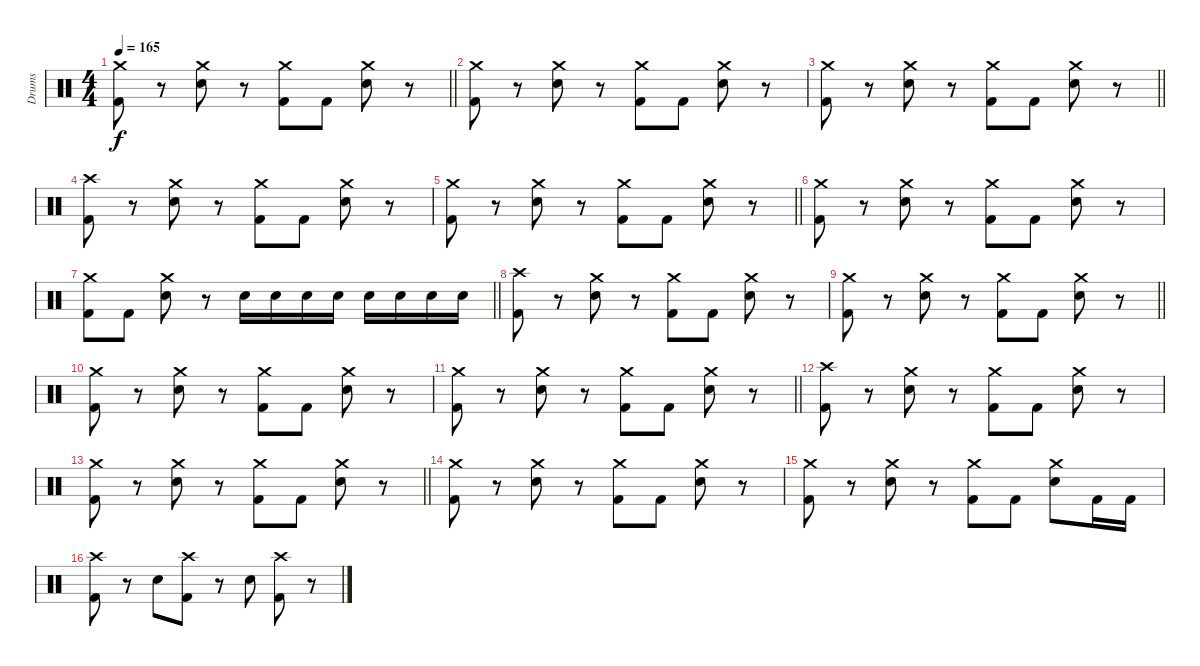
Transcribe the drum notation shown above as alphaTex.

\track ("Drums" "Drums") {instrument percussion}
\staff {score}
\articulation defaults
\ts (4 4)
\tempo 165
\clef neutral
\barLineRight lightlight
\ks c
("Crash medium (hit)" "Kick (hit) 2").8{dy f} r.8 ("Crash medium (hit)" "Electric Snare (hit)").8 r.8 ("Crash medium (hit)" "Kick (hit) 2").8 "Kick (hit) 2".8 ("Crash medium (hit)" "Electric Snare (hit)").8 r.8 |
("Crash medium (hit)" "Kick (hit) 2").8 r.8 ("Crash medium (hit)" "Electric Snare (hit)").8 r.8 ("Crash medium (hit)" "Kick (hit) 2").8 "Kick (hit) 2".8 ("Crash medium (hit)" "Electric Snare (hit)").8 r.8 |
\barLineRight lightlight
("Crash medium (hit)" "Kick (hit) 2").8 r.8 ("Crash medium (hit)" "Electric Snare (hit)").8 r.8 ("Crash medium (hit)" "Kick (hit) 2").8 "Kick (hit) 2".8 ("Crash medium (hit)" "Electric Snare (hit)").8 r.8 |
("Crash high (hit)" "Kick (hit) 2").8 r.8 ("Crash medium (hit)" "Electric Snare (hit)").8 r.8 ("Crash medium (hit)" "Kick (hit) 2").8 "Kick (hit) 2".8 ("Crash medium (hit)" "Electric Snare (hit)").8 r.8 |
\barLineRight lightlight
("Crash medium (hit)" "Kick (hit) 2").8 r.8 ("Crash medium (hit)" "Electric Snare (hit)").8 r.8 ("Crash medium (hit)" "Kick (hit) 2").8 "Kick (hit) 2".8 ("Crash medium (hit)" "Electric Snare (hit)").8 r.8 |
("Crash medium (hit)" "Kick (hit) 2").8 r.8 ("Crash medium (hit)" "Electric Snare (hit)").8 r.8 ("Crash medium (hit)" "Kick (hit) 2").8 "Kick (hit) 2".8 ("Crash medium (hit)" "Electric Snare (hit)").8 r.8 |
\barLineRight lightlight
("Crash medium (hit)" "Kick (hit) 2").8 "Kick (hit) 2".8 ("Crash medium (hit)" "Electric Snare (hit)").8 r.8 "Electric Snare (hit)".16 "Electric Snare (hit)".16 "Electric Snare (hit)".16 "Electric Snare (hit)".16 "Electric Snare (hit)".16 "Electric Snare (hit)".16 "Electric Snare (hit)".16 "Electric Snare (hit)".16 |
("Crash high (hit)" "Kick (hit) 2").8 r.8 ("Crash medium (hit)" "Electric Snare (hit)").8 r.8 ("Crash medium (hit)" "Kick (hit) 2").8 "Kick (hit) 2".8 ("Crash medium (hit)" "Electric Snare (hit)").8 r.8 |
\barLineRight lightlight
("Crash medium (hit)" "Kick (hit) 2").8 r.8 ("Crash medium (hit)" "Electric Snare (hit)").8 r.8 ("Crash medium (hit)" "Kick (hit) 2").8 "Kick (hit) 2".8 ("Crash medium (hit)" "Electric Snare (hit)").8 r.8 |
("Crash medium (hit)" "Kick (hit) 2").8 r.8 ("Crash medium (hit)" "Electric Snare (hit)").8 r.8 ("Crash medium (hit)" "Kick (hit) 2").8 "Kick (hit) 2".8 ("Crash medium (hit)" "Electric Snare (hit)").8 r.8 |
\barLineRight lightlight
("Crash medium (hit)" "Kick (hit) 2").8 r.8 ("Crash medium (hit)" "Electric Snare (hit)").8 r.8 ("Crash medium (hit)" "Kick (hit) 2").8 "Kick (hit) 2".8 ("Crash medium (hit)" "Electric Snare (hit)").8 r.8 |
("Crash high (hit)" "Kick (hit) 2").8 r.8 ("Crash medium (hit)" "Electric Snare (hit)").8 r.8 ("Crash medium (hit)" "Kick (hit) 2").8 "Kick (hit) 2".8 ("Crash medium (hit)" "Electric Snare (hit)").8 r.8 |
\barLineRight lightlight
("Crash medium (hit)" "Kick (hit) 2").8 r.8 ("Crash medium (hit)" "Electric Snare (hit)").8 r.8 ("Crash medium (hit)" "Kick (hit) 2").8 "Kick (hit) 2".8 ("Crash medium (hit)" "Electric Snare (hit)").8 r.8 |
("Crash medium (hit)" "Kick (hit) 2").8 r.8 ("Crash medium (hit)" "Electric Snare (hit)").8 r.8 ("Crash medium (hit)" "Kick (hit) 2").8 "Kick (hit) 2".8 ("Crash medium (hit)" "Electric Snare (hit)").8 r.8 |
("Crash medium (hit)" "Kick (hit) 2").8 r.8 ("Crash medium (hit)" "Electric Snare (hit)").8 r.8 ("Crash medium (hit)" "Kick (hit) 2").8 "Kick (hit) 2".8 ("Crash medium (hit)" "Electric Snare (hit)").8 "Kick (hit) 2".16 "Kick (hit) 2".16 |
("Kick (hit) 2" "Crash high (hit)").8 r.8 "Electric Snare (hit)".8 ("Crash high (hit)" "Kick (hit) 2").8 r.8 "Electric Snare (hit)".8 ("Crash high (hit)" "Kick (hit) 2").8 r.8
